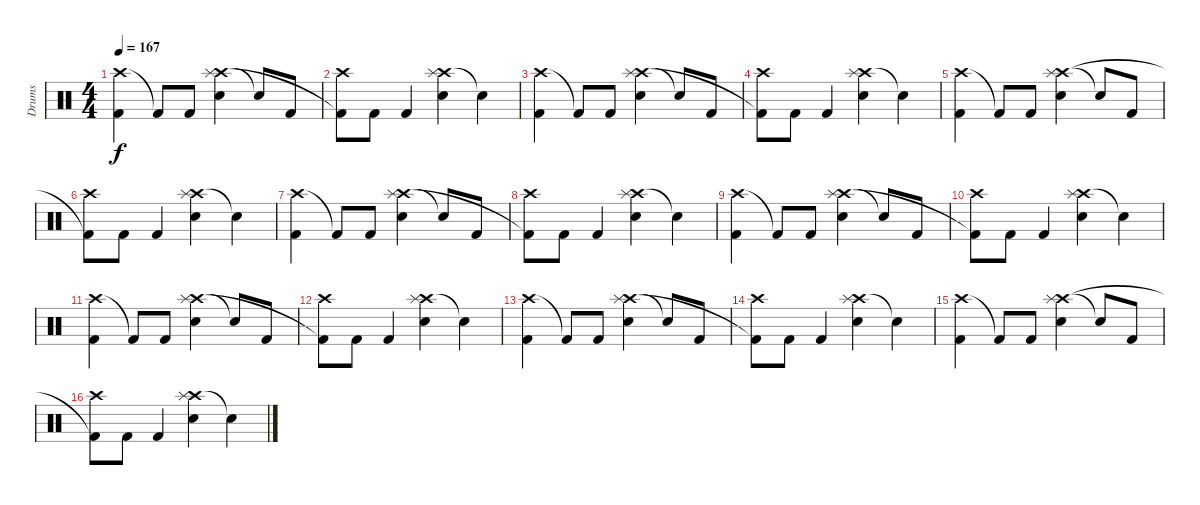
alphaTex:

\track ("Drums" "Drums") {instrument percussion}
\staff {score}
\articulation defaults
\ts (4 4)
\tempo 167
\clef neutral
\ks c
("Crash high (hit)" "Kick (hit) 2").4{dy f} "Kick (hit) 2"{t}.8 "Kick (hit) 2".8 ("Crash high (hit)" "Splash (hit)" "Snare (hit) 2").4 "Snare (hit)"{t}.8 "Kick (hit) 2".8 |
("Crash high (hit)" "Kick (hit) 2"{t}).8 "Kick (hit) 2".8 "Kick (hit) 2".4 ("Crash high (hit)" "Splash (hit)" "Snare (hit) 2").4 "Snare (hit)"{t}.4 |
("Crash high (hit)" "Kick (hit) 2").4 "Kick (hit) 2"{t}.8 "Kick (hit) 2".8 ("Crash high (hit)" "Splash (hit)" "Snare (hit) 2").4 "Snare (hit)"{t}.8 "Kick (hit) 2".8 |
("Crash high (hit)" "Kick (hit) 2"{t}).8 "Kick (hit) 2".8 "Kick (hit) 2".4 ("Crash high (hit)" "Splash (hit)" "Snare (hit) 2").4 "Snare (hit)"{t}.4 |
("Crash high (hit)" "Kick (hit) 2").4 "Kick (hit) 2"{t}.8 "Kick (hit) 2".8 ("Crash high (hit)" "Splash (hit)" "Snare (hit) 2").4 "Snare (hit)"{t}.8 "Kick (hit) 2".8 |
("Crash high (hit)" "Kick (hit) 2"{t}).8 "Kick (hit) 2".8 "Kick (hit) 2".4 ("Crash high (hit)" "Splash (hit)" "Snare (hit) 2").4 "Snare (hit)"{t}.4 |
("Crash high (hit)" "Kick (hit) 2").4 "Kick (hit) 2"{t}.8 "Kick (hit) 2".8 ("Crash high (hit)" "Splash (hit)" "Snare (hit) 2").4 "Snare (hit)"{t}.8 "Kick (hit) 2".8 |
("Crash high (hit)" "Kick (hit) 2"{t}).8 "Kick (hit) 2".8 "Kick (hit) 2".4 ("Crash high (hit)" "Splash (hit)" "Snare (hit) 2").4 "Snare (hit)"{t}.4 |
("Crash high (hit)" "Kick (hit) 2").4 "Kick (hit) 2"{t}.8 "Kick (hit) 2".8 ("Crash high (hit)" "Splash (hit)" "Snare (hit) 2").4 "Snare (hit)"{t}.8 "Kick (hit) 2".8 |
("Crash high (hit)" "Kick (hit) 2"{t}).8 "Kick (hit) 2".8 "Kick (hit) 2".4 ("Crash high (hit)" "Splash (hit)" "Snare (hit) 2").4 "Snare (hit)"{t}.4 |
("Crash high (hit)" "Kick (hit) 2").4 "Kick (hit) 2"{t}.8 "Kick (hit) 2".8 ("Crash high (hit)" "Splash (hit)" "Snare (hit) 2").4 "Snare (hit)"{t}.8 "Kick (hit) 2".8 |
("Crash high (hit)" "Kick (hit) 2"{t}).8 "Kick (hit) 2".8 "Kick (hit) 2".4 ("Crash high (hit)" "Splash (hit)" "Snare (hit) 2").4 "Snare (hit)"{t}.4 |
("Crash high (hit)" "Kick (hit) 2").4 "Kick (hit) 2"{t}.8 "Kick (hit) 2".8 ("Crash high (hit)" "Splash (hit)" "Snare (hit) 2").4 "Snare (hit)"{t}.8 "Kick (hit) 2".8 |
("Crash high (hit)" "Kick (hit) 2"{t}).8 "Kick (hit) 2".8 "Kick (hit) 2".4 ("Crash high (hit)" "Splash (hit)" "Snare (hit) 2").4 "Snare (hit)"{t}.4 |
("Crash high (hit)" "Kick (hit) 2").4 "Kick (hit) 2"{t}.8 "Kick (hit) 2".8 ("Crash high (hit)" "Splash (hit)" "Snare (hit) 2").4 "Snare (hit)"{t}.8 "Kick (hit) 2".8 |
("Crash high (hit)" "Kick (hit) 2"{t}).8 "Kick (hit) 2".8 "Kick (hit) 2".4 ("Crash high (hit)" "Splash (hit)" "Snare (hit) 2").4 "Snare (hit)"{t}.4
